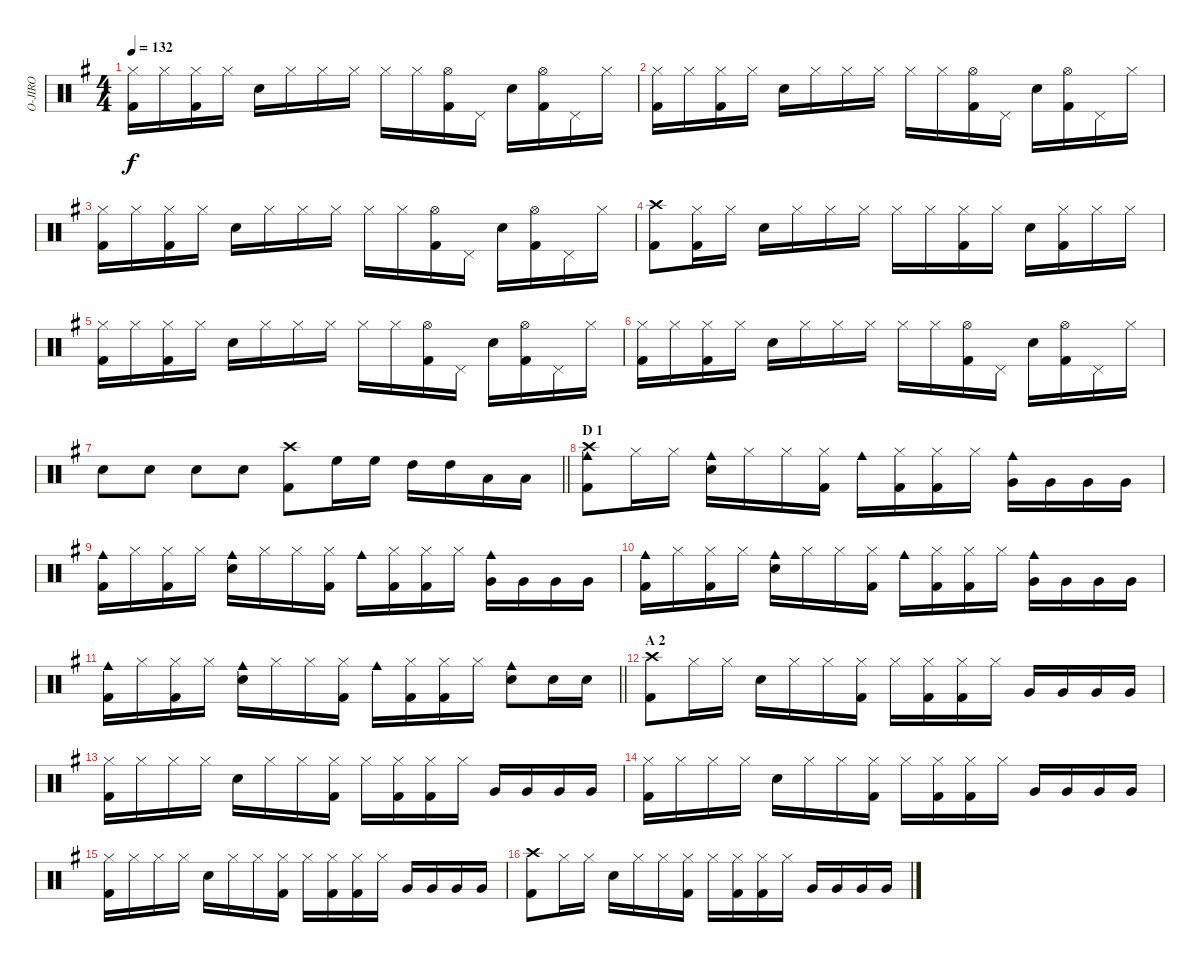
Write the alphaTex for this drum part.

\track ("O-JIRO" "O-JIRO") {instrument percussion}
\staff {score}
\articulation defaults
\ts (4 4)
\tempo 132
\clef neutral
\ks g
("Hi-Hat (closed)" "Kick (hit) 2").16{dy f} "Hi-Hat (closed)".16 ("Hi-Hat (closed)" "Kick (hit) 2").16 "Hi-Hat (closed)".16 "Snare (hit) 2".16 "Hi-Hat (closed)".16 "Hi-Hat (closed)".16 "Hi-Hat (closed)".16 "Hi-Hat (closed)".16 "Hi-Hat (closed)".16 ("Hi-Hat (open)" "Kick (hit) 2").16 "Pedal Hi-Hat (hit)".16 "Snare (hit) 2".16 ("Hi-Hat (open)" "Kick (hit) 2").16 "Pedal Hi-Hat (hit)".16 "Hi-Hat (closed)".16 |
("Hi-Hat (closed)" "Kick (hit) 2").16 "Hi-Hat (closed)".16 ("Hi-Hat (closed)" "Kick (hit) 2").16 "Hi-Hat (closed)".16 "Snare (hit) 2".16 "Hi-Hat (closed)".16 "Hi-Hat (closed)".16 "Hi-Hat (closed)".16 "Hi-Hat (closed)".16 "Hi-Hat (closed)".16 ("Hi-Hat (open)" "Kick (hit) 2").16 "Pedal Hi-Hat (hit)".16 "Snare (hit) 2".16 ("Hi-Hat (open)" "Kick (hit) 2").16 "Pedal Hi-Hat (hit)".16 "Hi-Hat (closed)".16 |
("Hi-Hat (closed)" "Kick (hit) 2").16 "Hi-Hat (closed)".16 ("Hi-Hat (closed)" "Kick (hit) 2").16 "Hi-Hat (closed)".16 "Snare (hit) 2".16 "Hi-Hat (closed)".16 "Hi-Hat (closed)".16 "Hi-Hat (closed)".16 "Hi-Hat (closed)".16 "Hi-Hat (closed)".16 ("Hi-Hat (open)" "Kick (hit) 2").16 "Pedal Hi-Hat (hit)".16 "Snare (hit) 2".16 ("Hi-Hat (open)" "Kick (hit) 2").16 "Pedal Hi-Hat (hit)".16 "Hi-Hat (closed)".16 |
("Crash high (hit)" "Kick (hit) 2").8 ("Hi-Hat (closed)" "Kick (hit) 2").16 "Hi-Hat (closed)".16 "Snare (hit) 2".16 "Hi-Hat (closed)".16 "Hi-Hat (closed)".16 "Hi-Hat (closed)".16 "Hi-Hat (closed)".16 "Hi-Hat (closed)".16 ("Hi-Hat (closed)" "Kick (hit) 2").16 "Hi-Hat (closed)".16 "Snare (hit) 2".16 ("Hi-Hat (closed)" "Kick (hit) 2").16 "Hi-Hat (closed)".16 "Hi-Hat (closed)".16 |
("Hi-Hat (closed)" "Kick (hit) 2").16 "Hi-Hat (closed)".16 ("Hi-Hat (closed)" "Kick (hit) 2").16 "Hi-Hat (closed)".16 "Snare (hit) 2".16 "Hi-Hat (closed)".16 "Hi-Hat (closed)".16 "Hi-Hat (closed)".16 "Hi-Hat (closed)".16 "Hi-Hat (closed)".16 ("Hi-Hat (open)" "Kick (hit) 2").16 "Pedal Hi-Hat (hit)".16 "Snare (hit) 2".16 ("Hi-Hat (open)" "Kick (hit) 2").16 "Pedal Hi-Hat (hit)".16 "Hi-Hat (closed)".16 |
("Hi-Hat (closed)" "Kick (hit) 2").16 "Hi-Hat (closed)".16 ("Hi-Hat (closed)" "Kick (hit) 2").16 "Hi-Hat (closed)".16 "Snare (hit) 2".16 "Hi-Hat (closed)".16 "Hi-Hat (closed)".16 "Hi-Hat (closed)".16 "Hi-Hat (closed)".16 "Hi-Hat (closed)".16 ("Hi-Hat (open)" "Kick (hit) 2").16 "Pedal Hi-Hat (hit)".16 "Snare (hit) 2".16 ("Hi-Hat (open)" "Kick (hit) 2").16 "Pedal Hi-Hat (hit)".16 "Hi-Hat (closed)".16 |
\barLineRight lightlight "Snare (hit) 2".8 "Snare (hit) 2".8 "Snare (hit) 2".8 "Snare (hit) 2".8
("Crash high (hit)" "Kick (hit) 2").8 "High Floor Tom (hit)".16 "High Floor Tom (hit)".16 "High Tom (hit)".16 "High Tom (hit)".16 "Low Tom (hit)".16 "Low Tom (hit)".16 |
\section ("" "D 1")
("Crash high (hit)" "Cowbell medium (hit)" "Kick (hit) 2").8 "Hi-Hat (closed)".16 "Hi-Hat (closed)".16 ("Cowbell medium (hit)" "Snare (hit) 2").16 "Hi-Hat (closed)".16 "Hi-Hat (closed)".16 ("Hi-Hat (closed)" "Kick (hit) 2").16 "Cowbell medium (hit)".16 ("Hi-Hat (closed)" "Kick (hit) 2").16 ("Hi-Hat (closed)" "Kick (hit) 2").16 "Hi-Hat (closed)".16 ("Cowbell medium (hit)" "Very Low Tom (hit)").16 "Very Low Tom (hit)".16 "Very Low Tom (hit)".16 "Very Low Tom (hit)".16 |
("Cowbell medium (hit)" "Kick (hit) 2").16 "Hi-Hat (closed)".16 ("Hi-Hat (closed)" "Kick (hit) 2").16 "Hi-Hat (closed)".16 ("Cowbell medium (hit)" "Snare (hit) 2").16 "Hi-Hat (closed)".16 "Hi-Hat (closed)".16 ("Hi-Hat (closed)" "Kick (hit) 2").16 "Cowbell medium (hit)".16 ("Hi-Hat (closed)" "Kick (hit) 2").16 ("Hi-Hat (closed)" "Kick (hit) 2").16 "Hi-Hat (closed)".16 ("Cowbell medium (hit)" "Very Low Tom (hit)").16 "Very Low Tom (hit)".16 "Very Low Tom (hit)".16 "Very Low Tom (hit)".16 |
("Cowbell medium (hit)" "Kick (hit) 2").16 "Hi-Hat (closed)".16 ("Hi-Hat (closed)" "Kick (hit) 2").16 "Hi-Hat (closed)".16 ("Cowbell medium (hit)" "Snare (hit) 2").16 "Hi-Hat (closed)".16 "Hi-Hat (closed)".16 ("Hi-Hat (closed)" "Kick (hit) 2").16 "Cowbell medium (hit)".16 ("Hi-Hat (closed)" "Kick (hit) 2").16 ("Hi-Hat (closed)" "Kick (hit) 2").16 "Hi-Hat (closed)".16 ("Cowbell medium (hit)" "Very Low Tom (hit)").16 "Very Low Tom (hit)".16 "Very Low Tom (hit)".16 "Very Low Tom (hit)".16 |
\barLineRight lightlight
("Cowbell medium (hit)" "Kick (hit) 2").16 "Hi-Hat (closed)".16 ("Hi-Hat (closed)" "Kick (hit) 2").16 "Hi-Hat (closed)".16 ("Cowbell medium (hit)" "Snare (hit) 2").16 "Hi-Hat (closed)".16 "Hi-Hat (closed)".16 ("Hi-Hat (closed)" "Kick (hit) 2").16 "Cowbell medium (hit)".16 ("Hi-Hat (closed)" "Kick (hit) 2").16 ("Hi-Hat (closed)" "Kick (hit) 2").16 "Hi-Hat (closed)".16 ("Cowbell medium (hit)" "Snare (hit) 2").8 "Snare (hit) 2".16 "Snare (hit) 2".16 |
\section ("" "A 2")
("Crash high (hit)" "Kick (hit) 2").8 "Hi-Hat (closed)".16 "Hi-Hat (closed)".16 "Snare (hit) 2".16 "Hi-Hat (closed)".16 "Hi-Hat (closed)".16 ("Hi-Hat (closed)" "Kick (hit) 2").16 "Hi-Hat (closed)".16 ("Hi-Hat (closed)" "Kick (hit) 2").16 ("Hi-Hat (closed)" "Kick (hit) 2").16 "Hi-Hat (closed)".16 "Very Low Tom (hit)".16 "Very Low Tom (hit)".16 "Very Low Tom (hit)".16 "Very Low Tom (hit)".16 |
("Hi-Hat (closed)" "Kick (hit) 2").16 "Hi-Hat (closed)".16 "Hi-Hat (closed)".16 "Hi-Hat (closed)".16 "Snare (hit) 2".16 "Hi-Hat (closed)".16 "Hi-Hat (closed)".16 ("Hi-Hat (closed)" "Kick (hit) 2").16 "Hi-Hat (closed)".16 ("Hi-Hat (closed)" "Kick (hit) 2").16 ("Hi-Hat (closed)" "Kick (hit) 2").16 "Hi-Hat (closed)".16 "Very Low Tom (hit)".16 "Very Low Tom (hit)".16 "Very Low Tom (hit)".16 "Very Low Tom (hit)".16 |
("Hi-Hat (closed)" "Kick (hit) 2").16 "Hi-Hat (closed)".16 "Hi-Hat (closed)".16 "Hi-Hat (closed)".16 "Snare (hit) 2".16 "Hi-Hat (closed)".16 "Hi-Hat (closed)".16 ("Hi-Hat (closed)" "Kick (hit) 2").16 "Hi-Hat (closed)".16 ("Hi-Hat (closed)" "Kick (hit) 2").16 ("Hi-Hat (closed)" "Kick (hit) 2").16 "Hi-Hat (closed)".16 "Very Low Tom (hit)".16 "Very Low Tom (hit)".16 "Very Low Tom (hit)".16 "Very Low Tom (hit)".16 |
("Hi-Hat (closed)" "Kick (hit) 2").16 "Hi-Hat (closed)".16 "Hi-Hat (closed)".16 "Hi-Hat (closed)".16 "Snare (hit) 2".16 "Hi-Hat (closed)".16 "Hi-Hat (closed)".16 ("Hi-Hat (closed)" "Kick (hit) 2").16 "Hi-Hat (closed)".16 ("Hi-Hat (closed)" "Kick (hit) 2").16 ("Hi-Hat (closed)" "Kick (hit) 2").16 "Hi-Hat (closed)".16 "Very Low Tom (hit)".16 "Very Low Tom (hit)".16 "Very Low Tom (hit)".16 "Very Low Tom (hit)".16 |
("Crash high (hit)" "Kick (hit) 2").8 "Hi-Hat (closed)".16 "Hi-Hat (closed)".16 "Snare (hit) 2".16 "Hi-Hat (closed)".16 "Hi-Hat (closed)".16 ("Hi-Hat (closed)" "Kick (hit) 2").16 "Hi-Hat (closed)".16 ("Hi-Hat (closed)" "Kick (hit) 2").16 ("Hi-Hat (closed)" "Kick (hit) 2").16 "Hi-Hat (closed)".16 "Very Low Tom (hit)".16 "Very Low Tom (hit)".16 "Very Low Tom (hit)".16 "Very Low Tom (hit)".16
